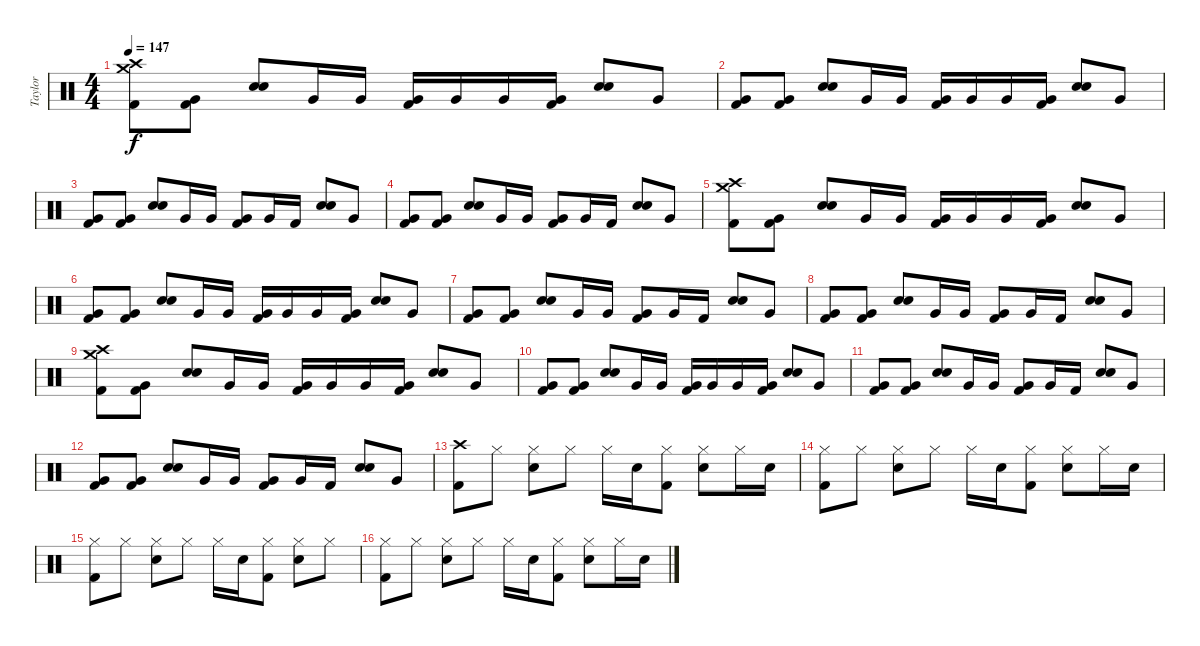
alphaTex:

\track ("Taylor" "Taylor") {instrument percussion}
\staff {score}
\articulation defaults
\ts (4 4)
\tempo 147
\clef neutral
\ks c
("Crash high (hit)" "Crash medium (hit)" "Kick (hit) 2").8{dy f} ("Very Low Tom (hit)" "Kick (hit) 2").8 ("Electric Snare (hit)" "Electric Snare (hit)").8{bu 240} "Very Low Tom (hit)".16 "Very Low Tom (hit)".16 ("Very Low Tom (hit)" "Kick (hit) 2").16 "Very Low Tom (hit)".16 "Very Low Tom (hit)".16 ("Very Low Tom (hit)" "Kick (hit) 2").16 ("Electric Snare (hit)" "Electric Snare (hit)").8{bu 240} "Very Low Tom (hit)".8 |
("Very Low Tom (hit)" "Kick (hit) 2").8 ("Very Low Tom (hit)" "Kick (hit) 2").8 ("Electric Snare (hit)" "Electric Snare (hit)").8{bu 240} "Very Low Tom (hit)".16 "Very Low Tom (hit)".16 ("Very Low Tom (hit)" "Kick (hit) 2").16 "Very Low Tom (hit)".16 "Very Low Tom (hit)".16 ("Very Low Tom (hit)" "Kick (hit) 2").16 ("Electric Snare (hit)" "Electric Snare (hit)").8{bu 240} "Very Low Tom (hit)".8 |
("Very Low Tom (hit)" "Kick (hit) 2").8 ("Very Low Tom (hit)" "Kick (hit) 2").8 ("Electric Snare (hit)" "Electric Snare (hit)").8{bu 240} "Very Low Tom (hit)".16 "Very Low Tom (hit)".16 ("Very Low Tom (hit)" "Kick (hit) 2").8 "Very Low Tom (hit)".16 "Kick (hit) 2".16 ("Electric Snare (hit)" "Electric Snare (hit)").8{bu 240} "Very Low Tom (hit)".8 |
("Very Low Tom (hit)" "Kick (hit) 2").8 ("Very Low Tom (hit)" "Kick (hit) 2").8 ("Electric Snare (hit)" "Electric Snare (hit)").8{bu 240} "Very Low Tom (hit)".16 "Very Low Tom (hit)".16 ("Very Low Tom (hit)" "Kick (hit) 2").8 "Very Low Tom (hit)".16 "Kick (hit) 2".16 ("Electric Snare (hit)" "Electric Snare (hit)").8{bu 240} "Very Low Tom (hit)".8 |
("Crash high (hit)" "Crash medium (hit)" "Kick (hit) 2").8 ("Very Low Tom (hit)" "Kick (hit) 2").8 ("Electric Snare (hit)" "Electric Snare (hit)").8{bu 240} "Very Low Tom (hit)".16 "Very Low Tom (hit)".16 ("Very Low Tom (hit)" "Kick (hit) 2").16 "Very Low Tom (hit)".16 "Very Low Tom (hit)".16 ("Very Low Tom (hit)" "Kick (hit) 2").16 ("Electric Snare (hit)" "Electric Snare (hit)").8{bu 240} "Very Low Tom (hit)".8 |
("Very Low Tom (hit)" "Kick (hit) 2").8 ("Very Low Tom (hit)" "Kick (hit) 2").8 ("Electric Snare (hit)" "Electric Snare (hit)").8{bu 240} "Very Low Tom (hit)".16 "Very Low Tom (hit)".16 ("Very Low Tom (hit)" "Kick (hit) 2").16 "Very Low Tom (hit)".16 "Very Low Tom (hit)".16 ("Very Low Tom (hit)" "Kick (hit) 2").16 ("Electric Snare (hit)" "Electric Snare (hit)").8{bu 240} "Very Low Tom (hit)".8 |
("Very Low Tom (hit)" "Kick (hit) 2").8 ("Very Low Tom (hit)" "Kick (hit) 2").8 ("Electric Snare (hit)" "Electric Snare (hit)").8{bu 240} "Very Low Tom (hit)".16 "Very Low Tom (hit)".16 ("Very Low Tom (hit)" "Kick (hit) 2").8 "Very Low Tom (hit)".16 "Kick (hit) 2".16 ("Electric Snare (hit)" "Electric Snare (hit)").8{bu 240} "Very Low Tom (hit)".8 |
("Very Low Tom (hit)" "Kick (hit) 2").8 ("Very Low Tom (hit)" "Kick (hit) 2").8 ("Electric Snare (hit)" "Electric Snare (hit)").8{bu 240} "Very Low Tom (hit)".16 "Very Low Tom (hit)".16 ("Very Low Tom (hit)" "Kick (hit) 2").8 "Very Low Tom (hit)".16 "Kick (hit) 2".16 ("Electric Snare (hit)" "Electric Snare (hit)").8{bu 240} "Very Low Tom (hit)".8 |
("Crash high (hit)" "Crash medium (hit)" "Kick (hit) 2").8 ("Very Low Tom (hit)" "Kick (hit) 2").8 ("Electric Snare (hit)" "Electric Snare (hit)").8{bu 240} "Very Low Tom (hit)".16 "Very Low Tom (hit)".16 ("Very Low Tom (hit)" "Kick (hit) 2").16 "Very Low Tom (hit)".16 "Very Low Tom (hit)".16 ("Very Low Tom (hit)" "Kick (hit) 2").16 ("Electric Snare (hit)" "Electric Snare (hit)").8{bu 240} "Very Low Tom (hit)".8 |
("Very Low Tom (hit)" "Kick (hit) 2").8 ("Very Low Tom (hit)" "Kick (hit) 2").8 ("Electric Snare (hit)" "Electric Snare (hit)").8{bu 240} "Very Low Tom (hit)".16 "Very Low Tom (hit)".16 ("Very Low Tom (hit)" "Kick (hit) 2").16 "Very Low Tom (hit)".16 "Very Low Tom (hit)".16 ("Very Low Tom (hit)" "Kick (hit) 2").16 ("Electric Snare (hit)" "Electric Snare (hit)").8{bu 240} "Very Low Tom (hit)".8 |
("Very Low Tom (hit)" "Kick (hit) 2").8 ("Very Low Tom (hit)" "Kick (hit) 2").8 ("Electric Snare (hit)" "Electric Snare (hit)").8{bu 240} "Very Low Tom (hit)".16 "Very Low Tom (hit)".16 ("Very Low Tom (hit)" "Kick (hit) 2").8 "Very Low Tom (hit)".16 "Kick (hit) 2".16 ("Electric Snare (hit)" "Electric Snare (hit)").8{bu 240} "Very Low Tom (hit)".8 |
("Very Low Tom (hit)" "Kick (hit) 2").8 ("Very Low Tom (hit)" "Kick (hit) 2").8 ("Electric Snare (hit)" "Electric Snare (hit)").8{bu 240} "Very Low Tom (hit)".16 "Very Low Tom (hit)".16 ("Very Low Tom (hit)" "Kick (hit) 2").8 "Very Low Tom (hit)".16 "Kick (hit) 2".16 ("Electric Snare (hit)" "Electric Snare (hit)").8{bu 240} "Very Low Tom (hit)".8 |
("Crash high (hit)" "Kick (hit) 2").8 "Hi-Hat (closed)".8 ("Hi-Hat (closed)" "Electric Snare (hit)").8 "Hi-Hat (closed)".8 "Hi-Hat (closed)".16 "Electric Snare (hit)".16 ("Hi-Hat (closed)" "Kick (hit) 2").8 ("Hi-Hat (closed)" "Electric Snare (hit)").8 "Hi-Hat (closed)".16 "Electric Snare (hit)".16 |
("Hi-Hat (closed)" "Kick (hit) 2").8 "Hi-Hat (closed)".8 ("Hi-Hat (closed)" "Electric Snare (hit)").8 "Hi-Hat (closed)".8 "Hi-Hat (closed)".16 "Electric Snare (hit)".16 ("Hi-Hat (closed)" "Kick (hit) 2").8 ("Hi-Hat (closed)" "Electric Snare (hit)").8 "Hi-Hat (closed)".16 "Electric Snare (hit)".16 |
("Hi-Hat (closed)" "Kick (hit) 2").8 "Hi-Hat (closed)".8 ("Hi-Hat (closed)" "Electric Snare (hit)").8 "Hi-Hat (closed)".8 "Hi-Hat (closed)".16 "Electric Snare (hit)".16 ("Hi-Hat (closed)" "Kick (hit) 2").8 ("Hi-Hat (closed)" "Electric Snare (hit)").8 "Hi-Hat (closed)".8 |
("Hi-Hat (closed)" "Kick (hit) 2").8 "Hi-Hat (closed)".8 ("Hi-Hat (closed)" "Electric Snare (hit)").8 "Hi-Hat (closed)".8 "Hi-Hat (closed)".16 "Electric Snare (hit)".16 ("Hi-Hat (closed)" "Kick (hit) 2").8 ("Hi-Hat (closed)" "Electric Snare (hit)").8 "Hi-Hat (closed)".16 "Electric Snare (hit)".16
